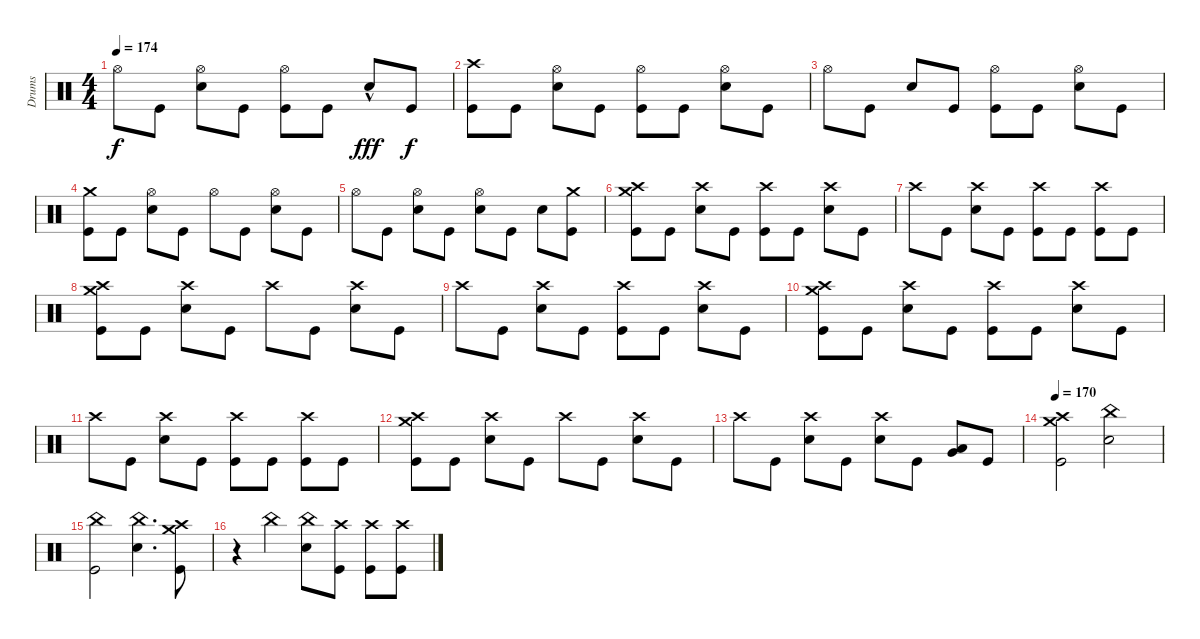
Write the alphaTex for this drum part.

\track ("Drums" "Drums") {instrument percussion}
\staff {score}
\articulation defaults
\ts (4 4)
\tempo 174
\clef neutral
\ks c "Hi-Hat (open)".8{dy f} "Kick (hit)".8
("Snare (hit) 2" "Hi-Hat (open)").8 "Kick (hit)".8 ("Hi-Hat (open)" "Kick (hit)").8 "Kick (hit)".8 "Snare (hit) 2"{hac}.8{dy fff} "Kick (hit)".8{dy f} |
("Kick (hit)" "Crash high (hit)").8 "Kick (hit)".8 ("Snare (hit) 2" "Hi-Hat (open)").8 "Kick (hit)".8 ("Hi-Hat (open)" "Kick (hit)").8 "Kick (hit)".8 ("Snare (hit) 2" "Hi-Hat (open)").8 "Kick (hit)".8 |
"Hi-Hat (open)".8 "Kick (hit)".8 "Snare (hit) 2".8 "Kick (hit)".8 ("Hi-Hat (open)" "Kick (hit)").8 "Kick (hit)".8 ("Snare (hit) 2" "Hi-Hat (open)").8 "Kick (hit)".8 |
("Kick (hit)" "Crash medium (hit)").8 "Kick (hit)".8 ("Snare (hit) 2" "Hi-Hat (open)").8 "Kick (hit)".8 "Hi-Hat (open)".8 "Kick (hit)".8 ("Snare (hit) 2" "Hi-Hat (open)").8 "Kick (hit)".8 |
"Hi-Hat (open)".8 "Kick (hit)".8 ("Snare (hit) 2" "Hi-Hat (open)").8 "Kick (hit)".8 ("Snare (hit) 2" "Hi-Hat (open)").8 "Kick (hit)".8 "Snare (hit) 2".8 ("Crash medium (hit)" "Kick (hit)").8 |
("Crash medium (hit)" "Kick (hit)" "Crash high (hit)").8 "Kick (hit)".8 ("Snare (hit) 2" "Crash high (hit)").8 "Kick (hit)".8 ("Kick (hit)" "Crash high (hit)").8 "Kick (hit)".8 ("Snare (hit) 2" "Crash high (hit)").8 "Kick (hit)".8 |
"Crash high (hit)".8 "Kick (hit)".8 ("Snare (hit) 2" "Crash high (hit)").8 "Kick (hit)".8 ("Kick (hit)" "Crash high (hit)").8 "Kick (hit)".8 ("Kick (hit)" "Crash high (hit)").8 "Kick (hit)".8 |
("Crash medium (hit)" "Kick (hit)" "Crash high (hit)").8 "Kick (hit)".8 ("Snare (hit) 2" "Crash high (hit)").8 "Kick (hit)".8 "Crash high (hit)".8 "Kick (hit)".8 ("Snare (hit) 2" "Crash high (hit)").8 "Kick (hit)".8 |
"Crash high (hit)".8 "Kick (hit)".8 ("Snare (hit) 2" "Crash high (hit)").8 "Kick (hit)".8 ("Kick (hit)" "Crash high (hit)").8 "Kick (hit)".8 ("Snare (hit) 2" "Crash high (hit)").8 "Kick (hit)".8 |
("Crash medium (hit)" "Kick (hit)" "Crash high (hit)").8 "Kick (hit)".8 ("Snare (hit) 2" "Crash high (hit)").8 "Kick (hit)".8 ("Kick (hit)" "Crash high (hit)").8 "Kick (hit)".8 ("Snare (hit) 2" "Crash high (hit)").8 "Kick (hit)".8 |
"Crash high (hit)".8 "Kick (hit)".8 ("Snare (hit) 2" "Crash high (hit)").8 "Kick (hit)".8 ("Kick (hit)" "Crash high (hit)").8 "Kick (hit)".8 ("Kick (hit)" "Crash high (hit)").8 "Kick (hit)".8 |
("Crash medium (hit)" "Kick (hit)" "Crash high (hit)").8 "Kick (hit)".8 ("Snare (hit) 2" "Crash high (hit)").8 "Kick (hit)".8 "Crash high (hit)".8 "Kick (hit)".8 ("Snare (hit) 2" "Crash high (hit)").8 "Kick (hit)".8 |
"Crash high (hit)".8 "Kick (hit)".8 ("Snare (hit) 2" "Crash high (hit)").8 "Kick (hit)".8 ("Snare (hit) 2" "Crash high (hit)").8 "Kick (hit)".8 ("Very Low Tom (hit)" "Low Floor Tom (hit)").8 "Kick (hit)".8 |
\tempo 164
\tempo 170
("Crash high (hit)" "Kick (hit)" "Crash medium (hit)").2 ("Snare (hit) 2" "China (hit)").2 |
("Kick (hit)" "China (hit)").2 ("Snare (hit) 2" "China (hit)").4{d} ("Crash high (hit)" "Kick (hit)" "Crash medium (hit)").8 |
r.4 "China (hit)".4 ("Snare (hit) 2" "China (hit)").8 ("Crash high (hit)" "Kick (hit)").8 ("Crash high (hit)" "Kick (hit)").8 ("Crash high (hit)" "Kick (hit)").8
